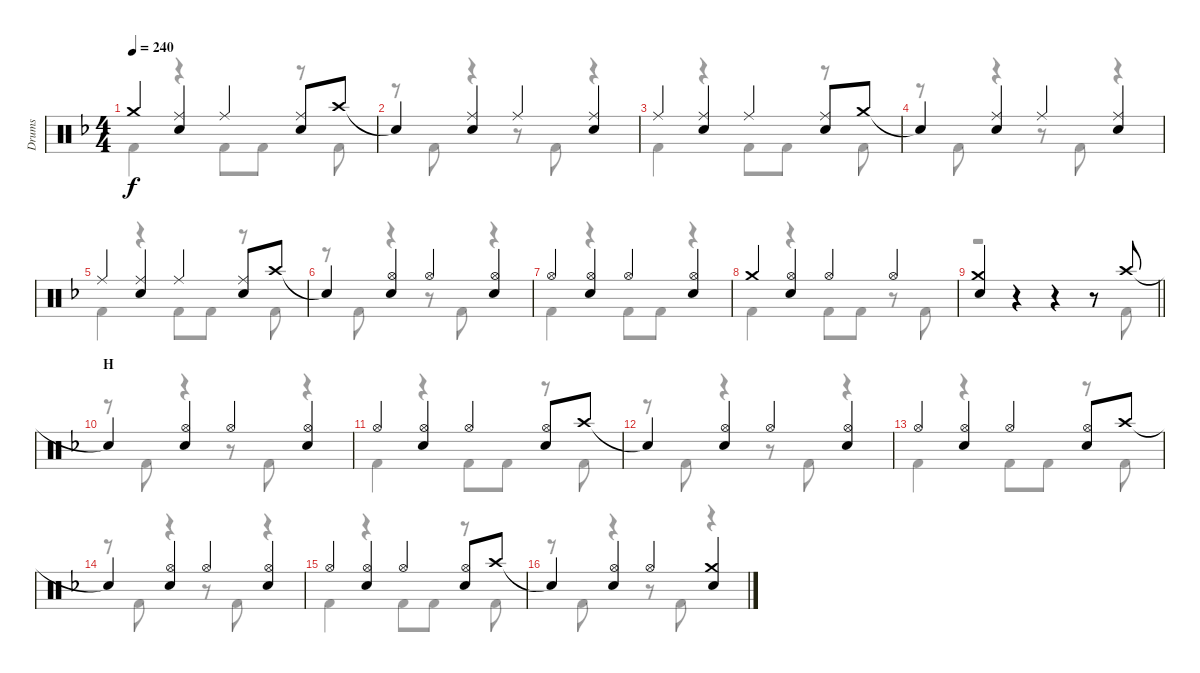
\track ("Drums" "Drums") {instrument percussion}
\staff {score}
\articulation defaults
\voice
\ts (4 4)
\tempo 240
\clef neutral
\ks f "Crash medium (hit)".4{dy f}
("Ride (middle)" "Snare (hit) 2").4 "Ride (middle)".4 ("Ride (middle)" "Snare (hit) 2").8 "Crash high (hit)".8 |
"Snare (hit)"{t}.4 ("Ride (middle)" "Snare (hit) 2").4 "Ride (middle)".4 ("Ride (middle)" "Snare (hit) 2").4 |
"Ride (middle)".4 ("Ride (middle)" "Snare (hit) 2").4 "Ride (middle)".4 ("Ride (middle)" "Snare (hit) 2").8 "Crash medium (hit)".8 |
"Snare (hit)"{t}.4 ("Ride (middle)" "Snare (hit) 2").4 "Ride (middle)".4 ("Ride (middle)" "Snare (hit) 2").4 |
"Ride (middle)".4 ("Ride (middle)" "Snare (hit) 2").4 "Ride (middle)".4 ("Ride (middle)" "Snare (hit) 2").8 "Crash high (hit)".8 |
"Snare (hit)"{t}.4 ("Hi-Hat (open)" "Snare (hit) 2").4 "Hi-Hat (open)".4 ("Hi-Hat (open)" "Snare (hit) 2").4 |
"Hi-Hat (open)".4 ("Hi-Hat (open)" "Snare (hit) 2").4 "Hi-Hat (open)".4 ("Hi-Hat (open)" "Snare (hit) 2").4 |
"Crash medium (hit)".4 ("Hi-Hat (open)" "Snare (hit) 2").4 "Hi-Hat (open)".4 "Hi-Hat (open)".4 |
\barLineRight lightlight
("Crash medium (hit)" "Snare (hit) 2").4 r.4 r.4 r.8 "Crash high (hit)".8 |
\section ("" "H")
"Snare (hit)"{t}.4 ("Hi-Hat (open)" "Snare (hit) 2").4 "Hi-Hat (open)".4 ("Hi-Hat (open)" "Snare (hit) 2").4 |
"Hi-Hat (open)".4 ("Hi-Hat (open)" "Snare (hit) 2").4 "Hi-Hat (open)".4 ("Hi-Hat (open)" "Snare (hit) 2").8 "Crash high (hit)".8 |
"Snare (hit)"{t}.4 ("Hi-Hat (open)" "Snare (hit) 2").4 "Hi-Hat (open)".4 ("Hi-Hat (open)" "Snare (hit) 2").4 |
"Hi-Hat (open)".4 ("Hi-Hat (open)" "Snare (hit) 2").4 "Hi-Hat (open)".4 ("Hi-Hat (open)" "Snare (hit) 2").8 "Crash high (hit)".8 |
"Snare (hit)"{t}.4 ("Hi-Hat (open)" "Snare (hit) 2").4 "Hi-Hat (open)".4 ("Hi-Hat (open)" "Snare (hit) 2").4 |
"Hi-Hat (open)".4 ("Hi-Hat (open)" "Snare (hit) 2").4 "Hi-Hat (open)".4 ("Hi-Hat (open)" "Snare (hit) 2").8 "Crash high (hit)".8 |
"Snare (hit)"{t}.4 ("Hi-Hat (open)" "Snare (hit) 2").4 "Hi-Hat (open)".4 ("Crash medium (hit)" "Snare (hit) 2").4
\voice
\clef neutral
\ottava regular
\simile none
\ks f "Kick (hit) 2".4{dy f}
r.4 "Kick (hit) 2".8 "Kick (hit) 2".8 r.8 "Kick (hit) 2".8 |
r.8 "Kick (hit) 2".8 r.4 r.8 "Kick (hit) 2".8 r.4 |
"Kick (hit) 2".4 r.4 "Kick (hit) 2".8 "Kick (hit) 2".8 r.8 "Kick (hit) 2".8 |
r.8 "Kick (hit) 2".8 r.4 r.8 "Kick (hit) 2".8 r.4 |
"Kick (hit) 2".4 r.4 "Kick (hit) 2".8 "Kick (hit) 2".8 r.8 "Kick (hit) 2".8 |
r.8 "Kick (hit) 2".8 r.4 r.8 "Kick (hit) 2".8 r.4 |
"Kick (hit) 2".4 r.4 "Kick (hit) 2".8 "Kick (hit) 2".8 r.4 |
"Kick (hit) 2".4 r.4 "Kick (hit) 2".8 "Kick (hit) 2".8 r.8 "Kick (hit) 2".8 |
\barLineRight lightlight
r.2 r.4 r.8 "Kick (hit) 2".8 |
r.8 "Kick (hit) 2".8 r.4 r.8 "Kick (hit) 2".8 r.4 |
"Kick (hit) 2".4 r.4 "Kick (hit) 2".8 "Kick (hit) 2".8 r.8 "Kick (hit) 2".8 |
r.8 "Kick (hit) 2".8 r.4 r.8 "Kick (hit) 2".8 r.4 |
"Kick (hit) 2".4 r.4 "Kick (hit) 2".8 "Kick (hit) 2".8 r.8 "Kick (hit) 2".8 |
r.8 "Kick (hit) 2".8 r.4 r.8 "Kick (hit) 2".8 r.4 |
"Kick (hit) 2".4 r.4 "Kick (hit) 2".8 "Kick (hit) 2".8 r.8 "Kick (hit) 2".8 |
r.8 "Kick (hit) 2".8 r.4 r.8 "Kick (hit) 2".8 r.4
